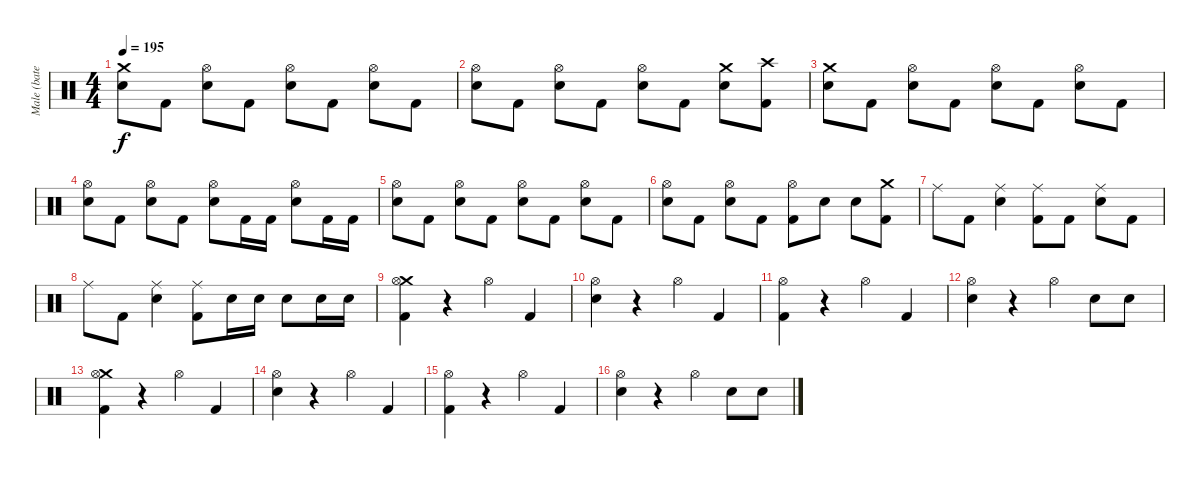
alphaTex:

\track ("Male (bateria)" "Male (bate") {instrument percussion}
\staff {score}
\articulation defaults
\ts (4 4)
\tempo 195
\clef neutral
\ks c
("Electric Snare (hit)" "Crash medium (hit)").8{dy f} "Kick (hit) 2".8 ("Electric Snare (hit)" "Hi-Hat (open)").8 "Kick (hit) 2".8 ("Electric Snare (hit)" "Hi-Hat (open)").8 "Kick (hit) 2".8 ("Electric Snare (hit)" "Hi-Hat (open)").8 "Kick (hit) 2".8 |
("Electric Snare (hit)" "Hi-Hat (open)").8 "Kick (hit) 2".8 ("Electric Snare (hit)" "Hi-Hat (open)").8 "Kick (hit) 2".8 ("Electric Snare (hit)" "Hi-Hat (open)").8 "Kick (hit) 2".8 ("Electric Snare (hit)" "Crash medium (hit)").8 ("Kick (hit) 2" "Crash high (hit)").8 |
("Electric Snare (hit)" "Crash medium (hit)").8 "Kick (hit) 2".8 ("Electric Snare (hit)" "Hi-Hat (open)").8 "Kick (hit) 2".8 ("Electric Snare (hit)" "Hi-Hat (open)").8 "Kick (hit) 2".8 ("Electric Snare (hit)" "Hi-Hat (open)").8 "Kick (hit) 2".8 |
("Electric Snare (hit)" "Hi-Hat (open)").8 "Kick (hit) 2".8 ("Electric Snare (hit)" "Hi-Hat (open)").8 "Kick (hit) 2".8 ("Electric Snare (hit)" "Hi-Hat (open)").8 "Kick (hit) 2".16 "Kick (hit) 2".16 ("Electric Snare (hit)" "Hi-Hat (open)").8 "Kick (hit) 2".16 "Kick (hit) 2".16 |
("Electric Snare (hit)" "Hi-Hat (open)").8 "Kick (hit) 2".8 ("Electric Snare (hit)" "Hi-Hat (open)").8 "Kick (hit) 2".8 ("Electric Snare (hit)" "Hi-Hat (open)").8 "Kick (hit) 2".8 ("Electric Snare (hit)" "Hi-Hat (open)").8 "Kick (hit) 2".8 |
("Electric Snare (hit)" "Hi-Hat (open)").8 "Kick (hit) 2".8 ("Electric Snare (hit)" "Hi-Hat (open)").8 "Kick (hit) 2".8 ("Kick (hit) 2" "Hi-Hat (open)").8 "Electric Snare (hit)".8 "Electric Snare (hit)".8 ("Kick (hit) 2" "Crash medium (hit)").8 |
"Ride (middle)".8 "Kick (hit) 2".8 ("Electric Snare (hit)" "Ride (middle)").4 ("Kick (hit) 2" "Ride (middle)").8 "Kick (hit) 2".8 ("Electric Snare (hit)" "Ride (middle)").8 "Kick (hit) 2".8 |
"Ride (middle)".8 "Kick (hit) 2".8 ("Electric Snare (hit)" "Ride (middle)").4 ("Kick (hit) 2" "Ride (middle)").8 "Electric Snare (hit)".16 "Electric Snare (hit)".16 "Electric Snare (hit)".8 "Electric Snare (hit)".16 "Electric Snare (hit)".16 |
("Kick (hit) 2" "Crash medium (hit)" "Hi-Hat (open)").4 r.4 "Hi-Hat (open)".4 "Kick (hit) 2".4 |
("Electric Snare (hit)" "Hi-Hat (open)").4 r.4 "Hi-Hat (open)".4 "Kick (hit) 2".4 |
("Kick (hit) 2" "Hi-Hat (open)").4 r.4 "Hi-Hat (open)".4 "Kick (hit) 2".4 |
("Electric Snare (hit)" "Hi-Hat (open)").4 r.4 "Hi-Hat (open)".4 "Electric Snare (hit)".8 "Electric Snare (hit)".8 |
("Kick (hit) 2" "Crash medium (hit)" "Hi-Hat (open)").4 r.4 "Hi-Hat (open)".4 "Kick (hit) 2".4 |
("Electric Snare (hit)" "Hi-Hat (open)").4 r.4 "Hi-Hat (open)".4 "Kick (hit) 2".4 |
("Kick (hit) 2" "Hi-Hat (open)").4 r.4 "Hi-Hat (open)".4 "Kick (hit) 2".4 |
("Electric Snare (hit)" "Hi-Hat (open)").4 r.4 "Hi-Hat (open)".4 "Electric Snare (hit)".8 "Electric Snare (hit)".8
